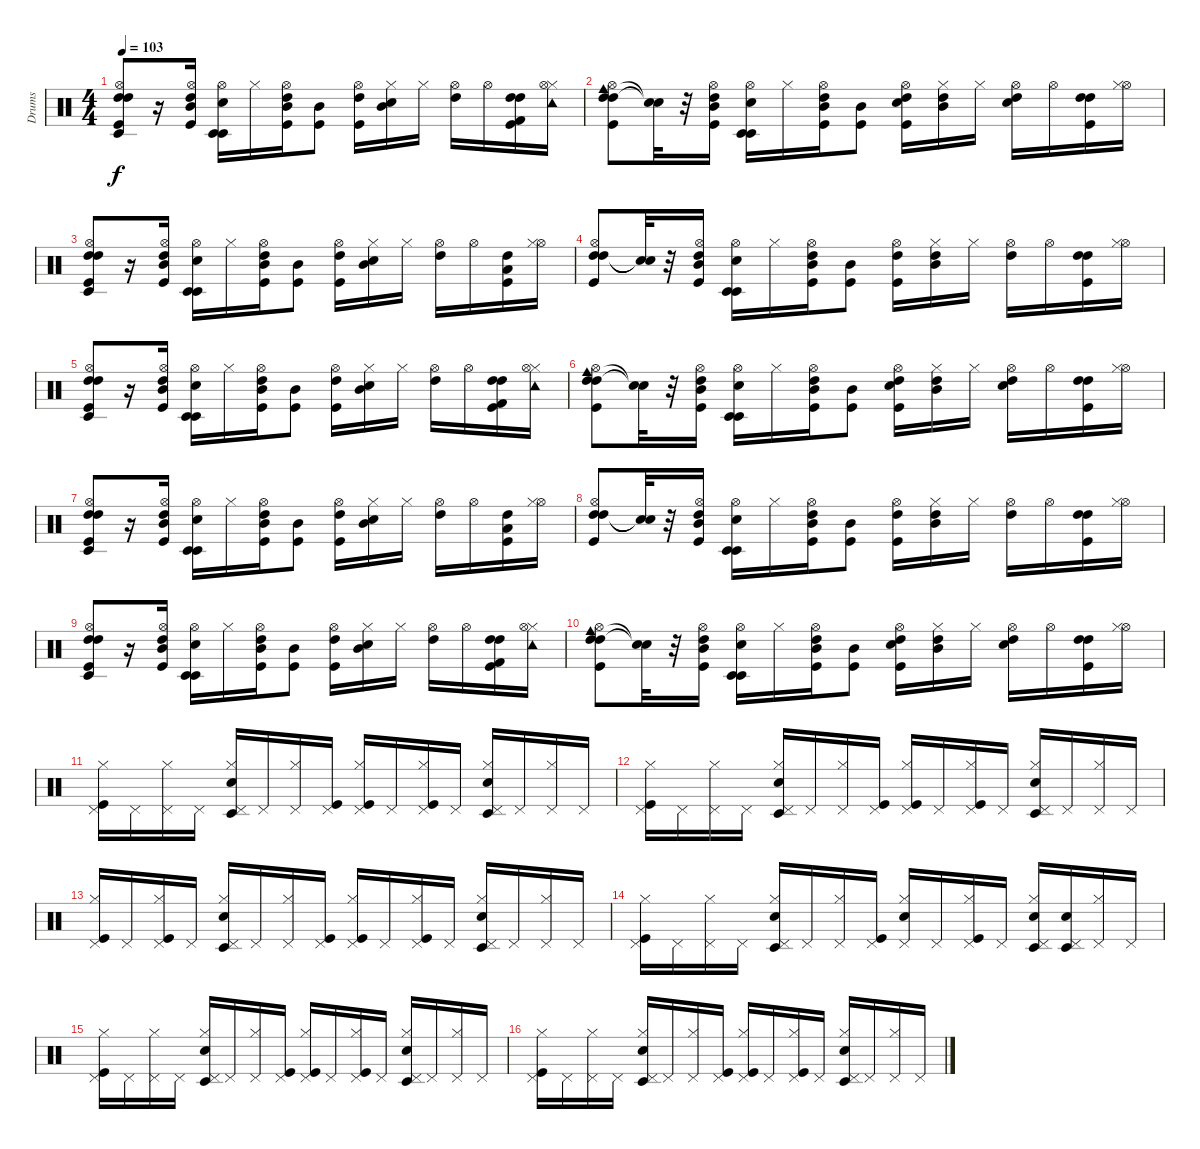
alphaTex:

\track ("Drums" "Drums") {instrument percussion}
\staff {score}
\articulation defaults
\ts (4 4)
\tempo 103
\clef neutral
\ks c
("High Tom (hit)" "Hi-Hat (open)" "Timbale low (hit)" "High Tom (hit)" "Kick (hit)").8{dy f} r.16 ("Hi-Hat (open)" "Mid Tom (hit)" "High Tom (hit)" "Kick (hit)").16 ("Electric Snare (hit)" "Timbale low (hit)" "Timbale low (hit)" "Hi-Hat (open)").16 "Hi-Hat (closed)".16 ("Hi-Hat (open)" "Kick (hit)" "Mid Tom (hit)" "High Tom (hit)").16 ("Mid Tom (hit)" "Kick (hit)").8 ("Hi-Hat (open)" "Kick (hit)" "High Tom (hit)").16 ("Hi-Hat (closed)" "Electric Snare (hit)" "Mid Tom (hit)").16 "Hi-Hat (closed)".16 ("Hi-Hat (open)" "High Tom (hit)").16 "Hi-Hat (open)".16 ("Kick (hit)" "High Tom (hit)" "High Tom (hit)" "Kick (hit) 2").16 ("Hi-Hat (closed)" "Hi-Hat (open)" "Tambourine (hit)").16 |
("Cowbell medium (hit)" "High Tom (hit)" "Kick (hit)" "High Tom (hit)" "Hi-Hat (open)").8 ("Snare (hit)"{t} "Snare (hit)"{t}).32 r.32 ("Kick (hit)" "Mid Tom (hit)" "Hi-Hat (open)" "High Tom (hit)").16 ("Hi-Hat (open)" "Timbale low (hit)" "Electric Snare (hit)" "Timbale low (hit)").16 "Hi-Hat (closed)".16 ("High Tom (hit)" "Hi-Hat (open)" "Mid Tom (hit)" "Kick (hit)").16 ("Mid Tom (hit)" "Kick (hit)").8 ("Electric Snare (hit)" "Kick (hit)" "High Tom (hit)" "Hi-Hat (open)").16 ("Mid Tom (hit)" "High Tom (hit)" "Hi-Hat (closed)").16 "Hi-Hat (closed)".16 ("Hi-Hat (open)" "High Tom (hit)" "Electric Snare (hit)").16 "Hi-Hat (open)".16 ("Kick (hit)" "High Tom (hit)" "High Tom (hit)").16 ("Hi-Hat (open)" "Hi-Hat (closed)").16 |
("Kick (hit)" "Timbale low (hit)" "High Tom (hit)" "High Tom (hit)" "Hi-Hat (open)").8 r.16 ("Hi-Hat (open)" "High Tom (hit)" "Kick (hit)" "Mid Tom (hit)").16 ("Timbale low (hit)" "Timbale low (hit)" "Hi-Hat (open)" "Electric Snare (hit)").16 "Hi-Hat (closed)".16 ("Kick (hit)" "Hi-Hat (open)" "Mid Tom (hit)" "High Tom (hit)").16 ("Kick (hit)" "Mid Tom (hit)").8 ("Kick (hit)" "Hi-Hat (open)" "High Tom (hit)").16 ("Hi-Hat (closed)" "Mid Tom (hit)" "Electric Snare (hit)").16 "Hi-Hat (closed)".16 ("Hi-Hat (open)" "High Tom (hit)").16 "Hi-Hat (open)".16 ("Low Tom (hit)" "High Tom (hit)" "Kick (hit)").16 ("Hi-Hat (open)" "Hi-Hat (closed)").16 |
("High Tom (hit)" "High Tom (hit)" "Hi-Hat (open)" "Kick (hit)").8 ("Snare (hit)"{t} "Snare (hit)"{t}).32 r.32 ("Mid Tom (hit)" "High Tom (hit)" "Kick (hit)" "Hi-Hat (open)").16 ("Timbale low (hit)" "Timbale low (hit)" "Electric Snare (hit)" "Hi-Hat (open)").16 "Hi-Hat (closed)".16 ("High Tom (hit)" "Hi-Hat (open)" "Mid Tom (hit)" "Kick (hit)").16 ("Mid Tom (hit)" "Kick (hit)").8 ("High Tom (hit)" "Kick (hit)" "Hi-Hat (open)").16 ("Hi-Hat (closed)" "Mid Tom (hit)" "High Tom (hit)").16 "Hi-Hat (closed)".16 ("High Tom (hit)" "Hi-Hat (open)").16 "Hi-Hat (open)".16 ("High Tom (hit)" "Kick (hit)" "High Tom (hit)").16 ("Hi-Hat (open)" "Hi-Hat (closed)").16 |
("High Tom (hit)" "Hi-Hat (open)" "Timbale low (hit)" "High Tom (hit)" "Kick (hit)").8 r.16 ("Hi-Hat (open)" "Mid Tom (hit)" "High Tom (hit)" "Kick (hit)").16 ("Electric Snare (hit)" "Timbale low (hit)" "Timbale low (hit)" "Hi-Hat (open)").16 "Hi-Hat (closed)".16 ("Hi-Hat (open)" "Kick (hit)" "Mid Tom (hit)" "High Tom (hit)").16 ("Mid Tom (hit)" "Kick (hit)").8 ("Hi-Hat (open)" "Kick (hit)" "High Tom (hit)").16 ("Hi-Hat (closed)" "Electric Snare (hit)" "Mid Tom (hit)").16 "Hi-Hat (closed)".16 ("Hi-Hat (open)" "High Tom (hit)").16 "Hi-Hat (open)".16 ("Kick (hit)" "High Tom (hit)" "High Tom (hit)" "Kick (hit) 2").16 ("Hi-Hat (closed)" "Hi-Hat (open)" "Tambourine (hit)").16 |
("Cowbell medium (hit)" "High Tom (hit)" "Kick (hit)" "High Tom (hit)" "Hi-Hat (open)").8 ("Snare (hit)"{t} "Snare (hit)"{t}).32 r.32 ("Kick (hit)" "Mid Tom (hit)" "Hi-Hat (open)" "High Tom (hit)").16 ("Hi-Hat (open)" "Timbale low (hit)" "Electric Snare (hit)" "Timbale low (hit)").16 "Hi-Hat (closed)".16 ("High Tom (hit)" "Hi-Hat (open)" "Mid Tom (hit)" "Kick (hit)").16 ("Mid Tom (hit)" "Kick (hit)").8 ("Electric Snare (hit)" "Kick (hit)" "High Tom (hit)" "Hi-Hat (open)").16 ("Mid Tom (hit)" "High Tom (hit)" "Hi-Hat (closed)").16 "Hi-Hat (closed)".16 ("Hi-Hat (open)" "High Tom (hit)" "Electric Snare (hit)").16 "Hi-Hat (open)".16 ("Kick (hit)" "High Tom (hit)" "High Tom (hit)").16 ("Hi-Hat (open)" "Hi-Hat (closed)").16 |
("Kick (hit)" "Timbale low (hit)" "High Tom (hit)" "High Tom (hit)" "Hi-Hat (open)").8 r.16 ("Hi-Hat (open)" "High Tom (hit)" "Kick (hit)" "Mid Tom (hit)").16 ("Timbale low (hit)" "Timbale low (hit)" "Hi-Hat (open)" "Electric Snare (hit)").16 "Hi-Hat (closed)".16 ("Kick (hit)" "Hi-Hat (open)" "Mid Tom (hit)" "High Tom (hit)").16 ("Kick (hit)" "Mid Tom (hit)").8 ("Kick (hit)" "Hi-Hat (open)" "High Tom (hit)").16 ("Hi-Hat (closed)" "Mid Tom (hit)" "Electric Snare (hit)").16 "Hi-Hat (closed)".16 ("Hi-Hat (open)" "High Tom (hit)").16 "Hi-Hat (open)".16 ("Low Tom (hit)" "High Tom (hit)" "Kick (hit)").16 ("Hi-Hat (open)" "Hi-Hat (closed)").16 |
("High Tom (hit)" "High Tom (hit)" "Hi-Hat (open)" "Kick (hit)").8 ("Snare (hit)"{t} "Snare (hit)"{t}).32 r.32 ("Mid Tom (hit)" "High Tom (hit)" "Kick (hit)" "Hi-Hat (open)").16 ("Timbale low (hit)" "Timbale low (hit)" "Electric Snare (hit)" "Hi-Hat (open)").16 "Hi-Hat (closed)".16 ("High Tom (hit)" "Hi-Hat (open)" "Mid Tom (hit)" "Kick (hit)").16 ("Mid Tom (hit)" "Kick (hit)").8 ("High Tom (hit)" "Kick (hit)" "Hi-Hat (open)").16 ("Hi-Hat (closed)" "Mid Tom (hit)" "High Tom (hit)").16 "Hi-Hat (closed)".16 ("High Tom (hit)" "Hi-Hat (open)").16 "Hi-Hat (open)".16 ("High Tom (hit)" "Kick (hit)" "High Tom (hit)").16 ("Hi-Hat (open)" "Hi-Hat (closed)").16 |
("High Tom (hit)" "Hi-Hat (open)" "Timbale low (hit)" "High Tom (hit)" "Kick (hit)").8 r.16 ("Hi-Hat (open)" "Mid Tom (hit)" "High Tom (hit)" "Kick (hit)").16 ("Electric Snare (hit)" "Timbale low (hit)" "Timbale low (hit)" "Hi-Hat (open)").16 "Hi-Hat (closed)".16 ("Hi-Hat (open)" "Kick (hit)" "Mid Tom (hit)" "High Tom (hit)").16 ("Mid Tom (hit)" "Kick (hit)").8 ("Hi-Hat (open)" "Kick (hit)" "High Tom (hit)").16 ("Hi-Hat (closed)" "Electric Snare (hit)" "Mid Tom (hit)").16 "Hi-Hat (closed)".16 ("Hi-Hat (open)" "High Tom (hit)").16 "Hi-Hat (open)".16 ("Kick (hit)" "High Tom (hit)" "High Tom (hit)" "Kick (hit) 2").16 ("Hi-Hat (closed)" "Hi-Hat (open)" "Tambourine (hit)").16 |
("Cowbell medium (hit)" "High Tom (hit)" "Kick (hit)" "High Tom (hit)" "Hi-Hat (open)").8 ("Snare (hit)"{t} "Snare (hit)"{t}).32 r.32 ("Kick (hit)" "Mid Tom (hit)" "Hi-Hat (open)" "High Tom (hit)").16 ("Hi-Hat (open)" "Timbale low (hit)" "Electric Snare (hit)" "Timbale low (hit)").16 "Hi-Hat (closed)".16 ("High Tom (hit)" "Hi-Hat (open)" "Mid Tom (hit)" "Kick (hit)").16 ("Mid Tom (hit)" "Kick (hit)").8 ("Electric Snare (hit)" "Kick (hit)" "High Tom (hit)" "Hi-Hat (open)").16 ("Mid Tom (hit)" "High Tom (hit)" "Hi-Hat (closed)").16 "Hi-Hat (closed)".16 ("Hi-Hat (open)" "High Tom (hit)" "Electric Snare (hit)").16 "Hi-Hat (open)".16 ("Kick (hit)" "High Tom (hit)" "High Tom (hit)").16 ("Hi-Hat (open)" "Hi-Hat (closed)").16 |
("Hi-Hat (closed)" "Kick (hit)" "Pedal Hi-Hat (hit)").16 "Pedal Hi-Hat (hit)".16 ("Hi-Hat (closed)" "Pedal Hi-Hat (hit)").16 "Pedal Hi-Hat (hit)".16 ("Hi-Hat (closed)" "Timbale low (hit)" "Electric Snare (hit)" "Pedal Hi-Hat (hit)").16 "Pedal Hi-Hat (hit)".16 ("Hi-Hat (closed)" "Pedal Hi-Hat (hit)").16 ("Kick (hit)" "Pedal Hi-Hat (hit)").16 ("Hi-Hat (closed)" "Kick (hit)" "Pedal Hi-Hat (hit)").16 "Pedal Hi-Hat (hit)".16 ("Hi-Hat (closed)" "Kick (hit)" "Pedal Hi-Hat (hit)").16 "Pedal Hi-Hat (hit)".16 ("Timbale low (hit)" "Electric Snare (hit)" "Hi-Hat (closed)" "Pedal Hi-Hat (hit)").16 "Pedal Hi-Hat (hit)".16 ("Hi-Hat (closed)" "Pedal Hi-Hat (hit)").16 "Pedal Hi-Hat (hit)".16 |
("Hi-Hat (closed)" "Kick (hit)" "Pedal Hi-Hat (hit)").16 "Pedal Hi-Hat (hit)".16 ("Hi-Hat (closed)" "Pedal Hi-Hat (hit)").16 "Pedal Hi-Hat (hit)".16 ("Timbale low (hit)" "Hi-Hat (closed)" "Electric Snare (hit)" "Pedal Hi-Hat (hit)").16 "Pedal Hi-Hat (hit)".16 ("Hi-Hat (closed)" "Pedal Hi-Hat (hit)").16 ("Kick (hit)" "Pedal Hi-Hat (hit)").16 ("Hi-Hat (closed)" "Kick (hit)" "Pedal Hi-Hat (hit)").16 "Pedal Hi-Hat (hit)".16 ("Hi-Hat (closed)" "Kick (hit)" "Pedal Hi-Hat (hit)").16 "Pedal Hi-Hat (hit)".16 ("Electric Snare (hit)" "Hi-Hat (closed)" "Timbale low (hit)" "Pedal Hi-Hat (hit)").16 "Pedal Hi-Hat (hit)".16 ("Hi-Hat (closed)" "Pedal Hi-Hat (hit)").16 "Pedal Hi-Hat (hit)".16 |
("Hi-Hat (closed)" "Kick (hit)" "Pedal Hi-Hat (hit)").16 "Pedal Hi-Hat (hit)".16 ("Kick (hit)" "Hi-Hat (closed)" "Pedal Hi-Hat (hit)").16 "Pedal Hi-Hat (hit)".16 ("Timbale low (hit)" "Hi-Hat (closed)" "Electric Snare (hit)" "Pedal Hi-Hat (hit)").16 "Pedal Hi-Hat (hit)".16 ("Hi-Hat (closed)" "Pedal Hi-Hat (hit)").16 ("Kick (hit)" "Pedal Hi-Hat (hit)").16 ("Kick (hit)" "Hi-Hat (closed)" "Pedal Hi-Hat (hit)").16 "Pedal Hi-Hat (hit)".16 ("Kick (hit)" "Hi-Hat (closed)" "Pedal Hi-Hat (hit)").16 "Pedal Hi-Hat (hit)".16 ("Timbale low (hit)" "Electric Snare (hit)" "Hi-Hat (closed)" "Pedal Hi-Hat (hit)").16 "Pedal Hi-Hat (hit)".16 ("Hi-Hat (closed)" "Pedal Hi-Hat (hit)").16 "Pedal Hi-Hat (hit)".16 |
("Hi-Hat (closed)" "Kick (hit)" "Pedal Hi-Hat (hit)").16 "Pedal Hi-Hat (hit)".16 ("Hi-Hat (closed)" "Pedal Hi-Hat (hit)").16 "Pedal Hi-Hat (hit)".16 ("Hi-Hat (closed)" "Electric Snare (hit)" "Timbale low (hit)" "Pedal Hi-Hat (hit)").16 "Pedal Hi-Hat (hit)".16 ("Hi-Hat (closed)" "Pedal Hi-Hat (hit)").16 ("Pedal Hi-Hat (hit)" "Kick (hit)").16 ("Hi-Hat (closed)" "Pedal Hi-Hat (hit)" "Electric Snare (hit)").16 "Pedal Hi-Hat (hit)".16 ("Kick (hit)" "Hi-Hat (closed)" "Pedal Hi-Hat (hit)").16 "Pedal Hi-Hat (hit)".16 ("Electric Snare (hit)" "Hi-Hat (closed)" "Timbale low (hit)" "Pedal Hi-Hat (hit)").16 ("Timbale low (hit)" "Electric Snare (hit)" "Pedal Hi-Hat (hit)").16 ("Hi-Hat (closed)" "Pedal Hi-Hat (hit)").16 "Pedal Hi-Hat (hit)".16 |
("Hi-Hat (closed)" "Kick (hit)" "Pedal Hi-Hat (hit)").16 "Pedal Hi-Hat (hit)".16 ("Hi-Hat (closed)" "Pedal Hi-Hat (hit)").16 "Pedal Hi-Hat (hit)".16 ("Hi-Hat (closed)" "Timbale low (hit)" "Electric Snare (hit)" "Pedal Hi-Hat (hit)").16 "Pedal Hi-Hat (hit)".16 ("Hi-Hat (closed)" "Pedal Hi-Hat (hit)").16 ("Kick (hit)" "Pedal Hi-Hat (hit)").16 ("Hi-Hat (closed)" "Kick (hit)" "Pedal Hi-Hat (hit)").16 "Pedal Hi-Hat (hit)".16 ("Hi-Hat (closed)" "Kick (hit)" "Pedal Hi-Hat (hit)").16 "Pedal Hi-Hat (hit)".16 ("Timbale low (hit)" "Electric Snare (hit)" "Hi-Hat (closed)" "Pedal Hi-Hat (hit)").16 "Pedal Hi-Hat (hit)".16 ("Hi-Hat (closed)" "Pedal Hi-Hat (hit)").16 "Pedal Hi-Hat (hit)".16 |
("Hi-Hat (closed)" "Kick (hit)" "Pedal Hi-Hat (hit)").16 "Pedal Hi-Hat (hit)".16 ("Hi-Hat (closed)" "Pedal Hi-Hat (hit)").16 "Pedal Hi-Hat (hit)".16 ("Timbale low (hit)" "Hi-Hat (closed)" "Electric Snare (hit)" "Pedal Hi-Hat (hit)").16 "Pedal Hi-Hat (hit)".16 ("Hi-Hat (closed)" "Pedal Hi-Hat (hit)").16 ("Kick (hit)" "Pedal Hi-Hat (hit)").16 ("Hi-Hat (closed)" "Kick (hit)" "Pedal Hi-Hat (hit)").16 "Pedal Hi-Hat (hit)".16 ("Hi-Hat (closed)" "Kick (hit)" "Pedal Hi-Hat (hit)").16 "Pedal Hi-Hat (hit)".16 ("Electric Snare (hit)" "Hi-Hat (closed)" "Timbale low (hit)" "Pedal Hi-Hat (hit)").16 "Pedal Hi-Hat (hit)".16 ("Hi-Hat (closed)" "Pedal Hi-Hat (hit)").16 "Pedal Hi-Hat (hit)".16
